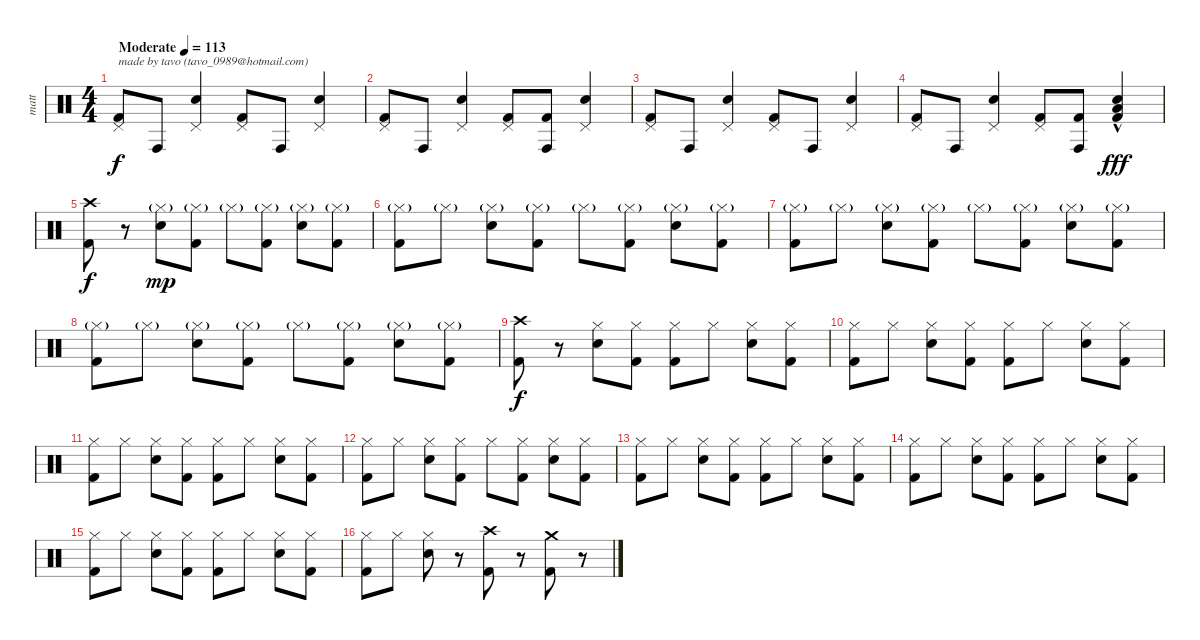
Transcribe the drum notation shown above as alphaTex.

\track ("matt" "matt") {instrument percussion}
\staff {score}
\articulation defaults
\ts (4 4)
\tempo (113 "Moderate")
\clef neutral
\ks c
("Pedal Hi-Hat (hit)" "Kick (hit) 2").8{txt "made by tavo (tavo_0989@hotmail.com)" dy f} "Conga high (hit)".8 ("Pedal Hi-Hat (hit)" "Electric Snare (hit)").4 ("Pedal Hi-Hat (hit)" "Kick (hit) 2").8 "Conga high (hit)".8 ("Pedal Hi-Hat (hit)" "Electric Snare (hit)").4 |
("Pedal Hi-Hat (hit)" "Kick (hit) 2").8 "Conga high (hit)".8 ("Pedal Hi-Hat (hit)" "Electric Snare (hit)").4 ("Pedal Hi-Hat (hit)" "Kick (hit) 2").8 ("Conga high (hit)" "Kick (hit) 2").8 ("Pedal Hi-Hat (hit)" "Electric Snare (hit)").4 |
("Pedal Hi-Hat (hit)" "Kick (hit) 2").8 "Conga high (hit)".8 ("Pedal Hi-Hat (hit)" "Electric Snare (hit)").4 ("Pedal Hi-Hat (hit)" "Kick (hit) 2").8 "Conga high (hit)".8 ("Pedal Hi-Hat (hit)" "Electric Snare (hit)").4 |
("Pedal Hi-Hat (hit)" "Kick (hit) 2").8 "Conga high (hit)".8 ("Pedal Hi-Hat (hit)" "Electric Snare (hit)").4 ("Pedal Hi-Hat (hit)" "Kick (hit) 2").8 ("Conga high (hit)" "Kick (hit) 2").8 ("Electric Snare (hit)"{hac} "Low Tom (hit)"{hac} "Kick (hit) 2"{hac}).4{dy fff} |
("Crash high (hit)" "Kick (hit) 2").8{dy f} r.8 ("Hi-Hat (closed)"{g} "Electric Snare (hit)").8{dy mp} ("Hi-Hat (closed)"{g} "Kick (hit) 2").8 "Hi-Hat (closed)"{g}.8 ("Hi-Hat (closed)"{g} "Kick (hit) 2").8 ("Hi-Hat (closed)"{g} "Electric Snare (hit)").8 ("Hi-Hat (closed)"{g} "Kick (hit) 2").8 |
("Hi-Hat (closed)"{g} "Kick (hit) 2").8 "Hi-Hat (closed)"{g}.8 ("Hi-Hat (closed)"{g} "Electric Snare (hit)").8 ("Hi-Hat (closed)"{g} "Kick (hit) 2").8 "Hi-Hat (closed)"{g}.8 ("Hi-Hat (closed)"{g} "Kick (hit) 2").8 ("Hi-Hat (closed)"{g} "Electric Snare (hit)").8 ("Hi-Hat (closed)"{g} "Kick (hit) 2").8 |
("Hi-Hat (closed)"{g} "Kick (hit) 2").8 "Hi-Hat (closed)"{g}.8 ("Hi-Hat (closed)"{g} "Electric Snare (hit)").8 ("Hi-Hat (closed)"{g} "Kick (hit) 2").8 "Hi-Hat (closed)"{g}.8 ("Hi-Hat (closed)"{g} "Kick (hit) 2").8 ("Hi-Hat (closed)"{g} "Electric Snare (hit)").8 ("Hi-Hat (closed)"{g} "Kick (hit) 2").8 |
("Hi-Hat (closed)"{g} "Kick (hit) 2").8 "Hi-Hat (closed)"{g}.8 ("Hi-Hat (closed)"{g} "Electric Snare (hit)").8 ("Hi-Hat (closed)"{g} "Kick (hit) 2").8 "Hi-Hat (closed)"{g}.8 ("Hi-Hat (closed)"{g} "Kick (hit) 2").8 ("Hi-Hat (closed)"{g} "Electric Snare (hit)").8 ("Hi-Hat (closed)"{g} "Kick (hit) 2").8 |
("Crash high (hit)" "Kick (hit) 2").8{dy f} r.8 ("Hi-Hat (closed)" "Electric Snare (hit)").8 ("Hi-Hat (closed)" "Kick (hit) 2").8 ("Hi-Hat (closed)" "Kick (hit) 2").8 "Hi-Hat (closed)".8 ("Hi-Hat (closed)" "Electric Snare (hit)").8 ("Hi-Hat (closed)" "Kick (hit) 2").8 |
("Hi-Hat (closed)" "Kick (hit) 2").8 "Hi-Hat (closed)".8 ("Hi-Hat (closed)" "Electric Snare (hit)").8 ("Hi-Hat (closed)" "Kick (hit) 2").8 ("Hi-Hat (closed)" "Kick (hit) 2").8 "Hi-Hat (closed)".8 ("Hi-Hat (closed)" "Electric Snare (hit)").8 ("Hi-Hat (closed)" "Kick (hit) 2").8 |
("Hi-Hat (closed)" "Kick (hit) 2").8 "Hi-Hat (closed)".8 ("Hi-Hat (closed)" "Electric Snare (hit)").8 ("Hi-Hat (closed)" "Kick (hit) 2").8 ("Hi-Hat (closed)" "Kick (hit) 2").8 "Hi-Hat (closed)".8 ("Hi-Hat (closed)" "Electric Snare (hit)").8 ("Hi-Hat (closed)" "Kick (hit) 2").8 |
("Hi-Hat (closed)" "Kick (hit) 2").8 "Hi-Hat (closed)".8 ("Hi-Hat (closed)" "Electric Snare (hit)").8 ("Hi-Hat (closed)" "Kick (hit) 2").8 "Hi-Hat (closed)".8 ("Hi-Hat (closed)" "Kick (hit) 2").8 ("Hi-Hat (closed)" "Electric Snare (hit)").8 ("Hi-Hat (closed)" "Kick (hit) 2").8 |
("Hi-Hat (closed)" "Kick (hit) 2").8 "Hi-Hat (closed)".8 ("Hi-Hat (closed)" "Electric Snare (hit)").8 ("Hi-Hat (closed)" "Kick (hit) 2").8 ("Hi-Hat (closed)" "Kick (hit) 2").8 "Hi-Hat (closed)".8 ("Hi-Hat (closed)" "Electric Snare (hit)").8 ("Hi-Hat (closed)" "Kick (hit) 2").8 |
("Hi-Hat (closed)" "Kick (hit) 2").8 "Hi-Hat (closed)".8 ("Hi-Hat (closed)" "Electric Snare (hit)").8 ("Hi-Hat (closed)" "Kick (hit) 2").8 ("Hi-Hat (closed)" "Kick (hit) 2").8 "Hi-Hat (closed)".8 ("Hi-Hat (closed)" "Electric Snare (hit)").8 ("Hi-Hat (closed)" "Kick (hit) 2").8 |
("Hi-Hat (closed)" "Kick (hit) 2").8 "Hi-Hat (closed)".8 ("Hi-Hat (closed)" "Electric Snare (hit)").8 ("Hi-Hat (closed)" "Kick (hit) 2").8 ("Hi-Hat (closed)" "Kick (hit) 2").8 "Hi-Hat (closed)".8 ("Hi-Hat (closed)" "Electric Snare (hit)").8 ("Hi-Hat (closed)" "Kick (hit) 2").8 |
("Hi-Hat (closed)" "Kick (hit) 2").8 "Hi-Hat (closed)".8 ("Hi-Hat (closed)" "Electric Snare (hit)").8 r.8 ("Crash high (hit)" "Kick (hit) 2").8 r.8 ("Crash medium (hit)" "Kick (hit) 2").8 r.8
